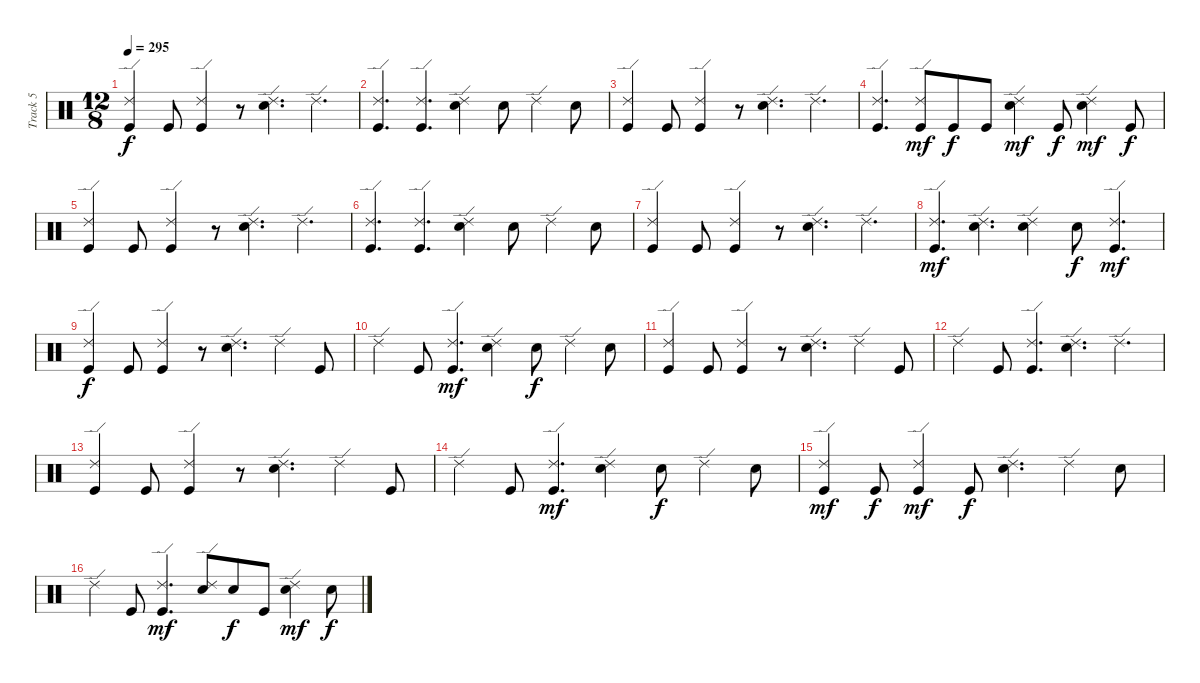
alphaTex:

\track ("Track 5" "Track 5") {instrument percussion}
\staff {score}
\articulation defaults
\ts (12 8)
\tempo 295
\clef neutral
\ks c
("Ride (edge) 2" "Kick (hit)").4{dy f} "Kick (hit)".8 ("Ride (edge) 2" "Kick (hit)").4 r.8 ("Ride (edge) 2" "Electric Snare (hit)").4{d} "Ride (edge) 2".4{d} |
("Ride (edge) 2" "Kick (hit)").4{d} ("Ride (edge) 2" "Kick (hit)").4{d} ("Ride (edge) 2" "Electric Snare (hit)").4 "Hand Clap (hit)".8 "Ride (edge) 2".4 "Hand Clap (hit)".8 |
("Ride (edge) 2" "Kick (hit)").4 "Kick (hit)".8 ("Ride (edge) 2" "Kick (hit)").4 r.8 ("Ride (edge) 2" "Electric Snare (hit)").4{d} "Ride (edge) 2".4{d} |
("Ride (edge) 2" "Kick (hit)").4{d} ("Ride (edge) 2" "Kick (hit)").8{dy mf} "Kick (hit)".8{dy f} "Kick (hit)".8 ("Ride (edge) 2" "Electric Snare (hit)").4{dy mf} "Kick (hit)".8{dy f} ("Ride (edge) 2" "Electric Snare (hit)").4{dy mf} "Kick (hit)".8{dy f} |
("Ride (edge) 2" "Kick (hit)").4 "Kick (hit)".8 ("Ride (edge) 2" "Kick (hit)").4 r.8 ("Ride (edge) 2" "Electric Snare (hit)").4{d} "Ride (edge) 2".4{d} |
("Ride (edge) 2" "Kick (hit)").4{d} ("Ride (edge) 2" "Kick (hit)").4{d} ("Ride (edge) 2" "Electric Snare (hit)").4 "Hand Clap (hit)".8 "Ride (edge) 2".4 "Hand Clap (hit)".8 |
("Ride (edge) 2" "Kick (hit)").4 "Kick (hit)".8 ("Ride (edge) 2" "Kick (hit)").4 r.8 ("Ride (edge) 2" "Electric Snare (hit)").4{d} "Ride (edge) 2".4{d} |
("Ride (edge) 2" "Kick (hit)").4{d dy mf} ("Ride (edge) 2" "Electric Snare (hit)").4{d} ("Ride (edge) 2" "Electric Snare (hit)").4 "Electric Snare (hit)".8{dy f} ("Ride (edge) 2" "Kick (hit)").4{d dy mf} |
("Ride (edge) 2" "Kick (hit)").4{dy f} "Kick (hit)".8 ("Ride (edge) 2" "Kick (hit)").4 r.8 ("Ride (edge) 2" "Electric Snare (hit)").4{d} "Ride (edge) 2".4 "Kick (hit)".8 |
"Ride (edge) 2".4 "Kick (hit)".8 ("Ride (edge) 2" "Kick (hit)").4{d dy mf} ("Ride (edge) 2" "Electric Snare (hit)").4 "Hand Clap (hit)".8{dy f} "Ride (edge) 2".4 "Hand Clap (hit)".8 |
("Ride (edge) 2" "Kick (hit)").4 "Kick (hit)".8 ("Ride (edge) 2" "Kick (hit)").4 r.8 ("Ride (edge) 2" "Electric Snare (hit)").4{d} "Ride (edge) 2".4 "Kick (hit)".8 |
"Ride (edge) 2".4 "Kick (hit)".8 ("Ride (edge) 2" "Kick (hit)").4{d} ("Ride (edge) 2" "Electric Snare (hit)").4{d} "Ride (edge) 2".4{d} |
("Ride (edge) 2" "Kick (hit)").4 "Kick (hit)".8 ("Ride (edge) 2" "Kick (hit)").4 r.8 ("Ride (edge) 2" "Electric Snare (hit)").4{d} "Ride (edge) 2".4 "Kick (hit)".8 |
"Ride (edge) 2".4 "Kick (hit)".8 ("Ride (edge) 2" "Kick (hit)").4{d dy mf} ("Ride (edge) 2" "Electric Snare (hit)").4 "Hand Clap (hit)".8{dy f} "Ride (edge) 2".4 "Hand Clap (hit)".8 |
("Ride (edge) 2" "Kick (hit)").4{dy mf} "Kick (hit)".8{dy f} ("Ride (edge) 2" "Kick (hit)").4{dy mf} "Kick (hit)".8{dy f} ("Ride (edge) 2" "Electric Snare (hit)").4{d} "Ride (edge) 2".4 "Electric Snare (hit)".8 |
"Ride (edge) 2".4 "Kick (hit)".8 ("Ride (edge) 2" "Kick (hit)").4{d dy mf} ("Ride (edge) 2" "Electric Snare (hit)").8 "Electric Snare (hit)".8{dy f} "Kick (hit)".8 ("Ride (edge) 2" "Electric Snare (hit)").4{dy mf} "Electric Snare (hit)".8{dy f}
